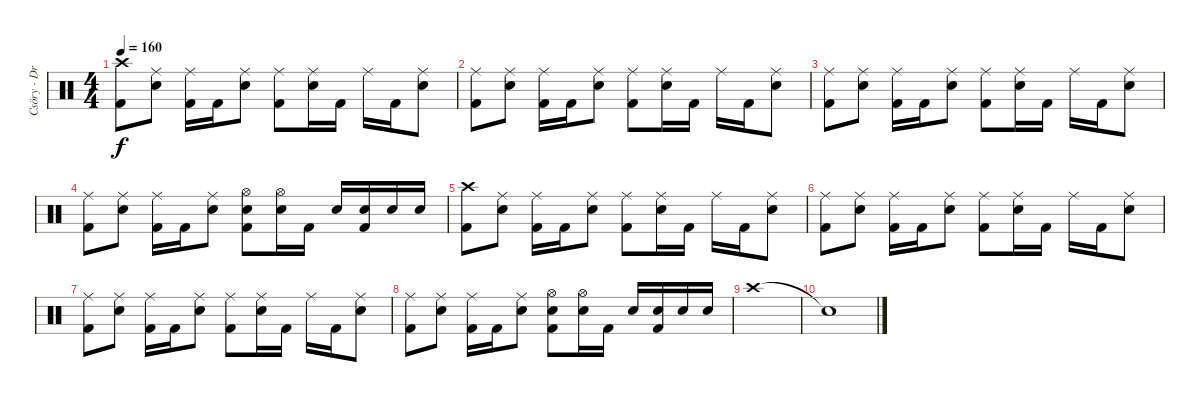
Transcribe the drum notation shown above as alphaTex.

\track ("Csöry - DrumZ" "Csöry - Dr") {instrument percussion}
\staff {score}
\articulation defaults
\ts (4 4)
\tempo 160
\clef neutral
\ks c
("Crash high (hit)" "Kick (hit) 2").8{dy f} ("Ride (middle)" "Snare (hit) 2").8 ("Ride (middle)" "Kick (hit) 2").16 "Kick (hit) 2".16 ("Ride (middle)" "Snare (hit) 2").8 ("Ride (middle)" "Kick (hit) 2").8 ("Ride (middle)" "Snare (hit) 2").16 "Kick (hit) 2".16 "Ride (middle)".16 "Kick (hit) 2".16 ("Ride (middle)" "Snare (hit) 2").8 |
("Ride (middle)" "Kick (hit) 2").8 ("Ride (middle)" "Snare (hit) 2").8 ("Ride (middle)" "Kick (hit) 2").16 "Kick (hit) 2".16 ("Ride (middle)" "Snare (hit) 2").8 ("Ride (middle)" "Kick (hit) 2").8 ("Ride (middle)" "Snare (hit) 2").16 "Kick (hit) 2".16 "Ride (middle)".16 "Kick (hit) 2".16 ("Ride (middle)" "Snare (hit) 2").8 |
("Ride (middle)" "Kick (hit) 2").8 ("Ride (middle)" "Snare (hit) 2").8 ("Ride (middle)" "Kick (hit) 2").16 "Kick (hit) 2".16 ("Ride (middle)" "Snare (hit) 2").8 ("Ride (middle)" "Kick (hit) 2").8 ("Ride (middle)" "Snare (hit) 2").16 "Kick (hit) 2".16 "Ride (middle)".16 "Kick (hit) 2".16 ("Ride (middle)" "Snare (hit) 2").8 |
("Ride (middle)" "Kick (hit) 2").8 ("Ride (middle)" "Snare (hit) 2").8 ("Ride (middle)" "Kick (hit) 2").16 "Kick (hit) 2".16 ("Ride (middle)" "Snare (hit) 2").8 ("Hi-Hat (open)" "Snare (hit) 2" "Kick (hit) 2").8 ("Hi-Hat (open)" "Snare (hit) 2").16 "Kick (hit) 2".16 "Snare (hit) 2".16 ("Snare (hit) 2" "Kick (hit) 2").16 "Snare (hit) 2".16 "Snare (hit) 2".16 |
("Crash high (hit)" "Kick (hit) 2").8 ("Ride (middle)" "Snare (hit) 2").8 ("Ride (middle)" "Kick (hit) 2").16 "Kick (hit) 2".16 ("Ride (middle)" "Snare (hit) 2").8 ("Ride (middle)" "Kick (hit) 2").8 ("Ride (middle)" "Snare (hit) 2").16 "Kick (hit) 2".16 "Ride (middle)".16 "Kick (hit) 2".16 ("Ride (middle)" "Snare (hit) 2").8 |
("Ride (middle)" "Kick (hit) 2").8 ("Ride (middle)" "Snare (hit) 2").8 ("Ride (middle)" "Kick (hit) 2").16 "Kick (hit) 2".16 ("Ride (middle)" "Snare (hit) 2").8 ("Ride (middle)" "Kick (hit) 2").8 ("Ride (middle)" "Snare (hit) 2").16 "Kick (hit) 2".16 "Ride (middle)".16 "Kick (hit) 2".16 ("Ride (middle)" "Snare (hit) 2").8 |
("Ride (middle)" "Kick (hit) 2").8 ("Ride (middle)" "Snare (hit) 2").8 ("Ride (middle)" "Kick (hit) 2").16 "Kick (hit) 2".16 ("Ride (middle)" "Snare (hit) 2").8 ("Ride (middle)" "Kick (hit) 2").8 ("Ride (middle)" "Snare (hit) 2").16 "Kick (hit) 2".16 "Ride (middle)".16 "Kick (hit) 2".16 ("Ride (middle)" "Snare (hit) 2").8 |
("Ride (middle)" "Kick (hit) 2").8 ("Ride (middle)" "Snare (hit) 2").8 ("Ride (middle)" "Kick (hit) 2").16 "Kick (hit) 2".16 ("Ride (middle)" "Snare (hit) 2").8 ("Hi-Hat (open)" "Snare (hit) 2" "Kick (hit) 2").8 ("Hi-Hat (open)" "Snare (hit) 2").16 "Kick (hit) 2".16 "Snare (hit) 2".16 ("Snare (hit) 2" "Kick (hit) 2").16 "Snare (hit) 2".16 "Snare (hit) 2".16 |
"Crash high (hit)".1 |
"Snare (hit)"{t}.1
